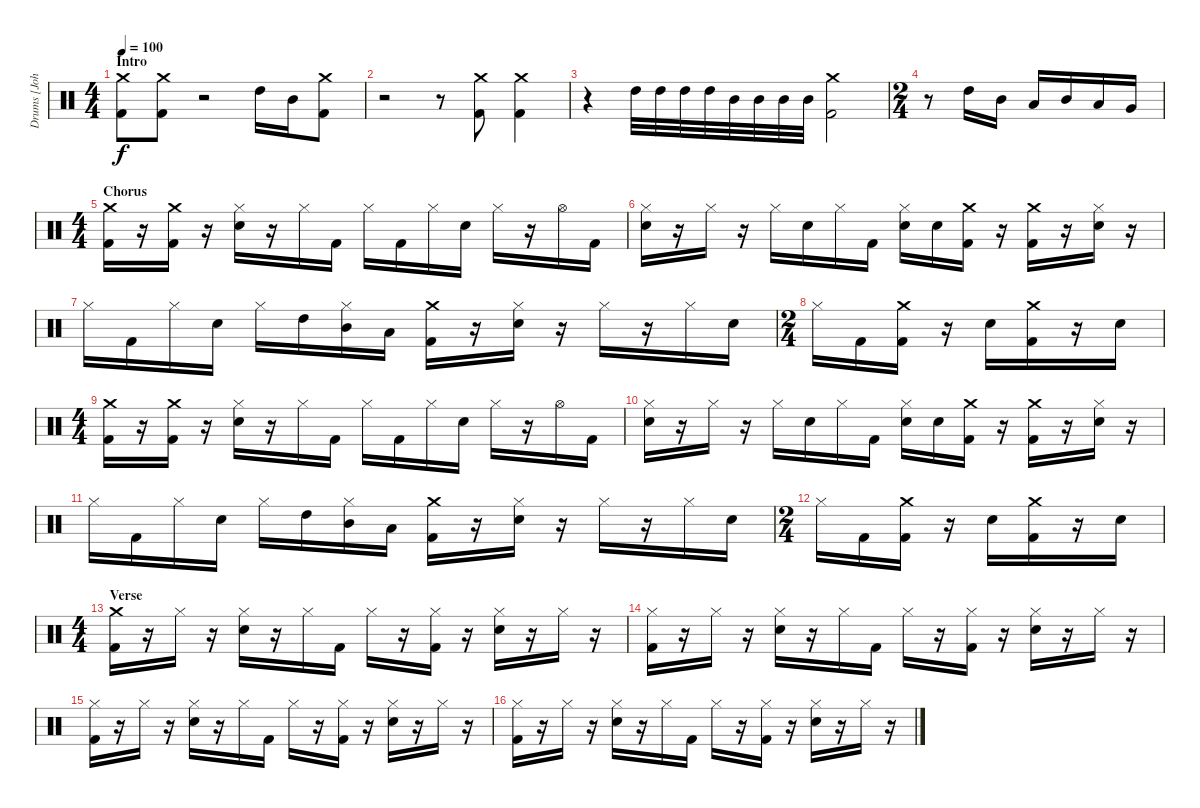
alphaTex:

\track ("Drums [John Otto]" "Drums [Joh") {instrument percussion}
\staff {score}
\articulation defaults
\ts (4 4)
\section ("" "Intro")
\tempo 100
\clef neutral
\ks c
("Crash medium (hit)" "Kick (hit) 2").8{dy f} ("Crash medium (hit)" "Kick (hit) 2").8 r.2 "High Tom (hit)".16 "Mid Tom (hit)".16 ("Crash medium (hit)" "Kick (hit) 2").8 |
r.2 r.8 ("Crash medium (hit)" "Kick (hit) 2").8 ("Crash medium (hit)" "Kick (hit) 2").4 |
r.4 "High Tom (hit)".32 "High Tom (hit)".32 "High Tom (hit)".32 "High Tom (hit)".32 "Mid Tom (hit)".32 "Mid Tom (hit)".32 "Mid Tom (hit)".32 "Mid Tom (hit)".32 ("Crash medium (hit)" "Kick (hit) 2").2 |
\ts (2 4)
r.8 "High Tom (hit)".16 "Mid Tom (hit)".16 "Low Tom (hit)".16 "Mid Tom (hit)".16 "Low Tom (hit)".16 "Very Low Tom (hit)".16 |
\ts (4 4)
\section ("" "Chorus")
("Crash medium (hit)" "Kick (hit) 2").16 r.16 ("Crash medium (hit)" "Kick (hit) 2").16 r.16 ("Hi-Hat (closed)" "Electric Snare (hit)").16 r.16 "Hi-Hat (closed)".16 "Kick (hit) 2".16 "Hi-Hat (closed)".16 "Kick (hit) 2".16 "Hi-Hat (closed)".16 "Electric Snare (hit)".16 "Hi-Hat (closed)".16 r.16 "Hi-Hat (open)".16 "Kick (hit) 2".16 |
("Hi-Hat (closed)" "Electric Snare (hit)").16 r.16 "Hi-Hat (closed)".16 r.16 "Hi-Hat (closed)".16 "Electric Snare (hit)".16 "Hi-Hat (closed)".16 "Kick (hit) 2".16 ("Hi-Hat (closed)" "Electric Snare (hit)").16 "Electric Snare (hit)".16 ("Crash medium (hit)" "Kick (hit) 2").16 r.16 ("Crash medium (hit)" "Kick (hit) 2").16 r.16 ("Hi-Hat (closed)" "Electric Snare (hit)").16 r.16 |
"Hi-Hat (closed)".16 "Kick (hit) 2".16 "Hi-Hat (closed)".16 "Electric Snare (hit)".16 "Hi-Hat (closed)".16 "High Tom (hit)".16 ("Hi-Hat (closed)" "Mid Tom (hit)").16 "Low Tom (hit)".16 ("Crash medium (hit)" "Kick (hit) 2").16 r.16 ("Hi-Hat (closed)" "Electric Snare (hit)").16 r.16 "Hi-Hat (closed)".16 r.16 "Hi-Hat (closed)".16 "Electric Snare (hit)".16 |
\ts (2 4)
"Hi-Hat (closed)".16 "Kick (hit) 2".16 ("Crash medium (hit)" "Kick (hit) 2").16 r.16 "Electric Snare (hit)".16 ("Crash medium (hit)" "Kick (hit) 2").16 r.16 "Electric Snare (hit)".16 |
\ts (4 4)
("Crash medium (hit)" "Kick (hit) 2").16 r.16 ("Crash medium (hit)" "Kick (hit) 2").16 r.16 ("Hi-Hat (closed)" "Electric Snare (hit)").16 r.16 "Hi-Hat (closed)".16 "Kick (hit) 2".16 "Hi-Hat (closed)".16 "Kick (hit) 2".16 "Hi-Hat (closed)".16 "Electric Snare (hit)".16 "Hi-Hat (closed)".16 r.16 "Hi-Hat (open)".16 "Kick (hit) 2".16 |
("Hi-Hat (closed)" "Electric Snare (hit)").16 r.16 "Hi-Hat (closed)".16 r.16 "Hi-Hat (closed)".16 "Electric Snare (hit)".16 "Hi-Hat (closed)".16 "Kick (hit) 2".16 ("Hi-Hat (closed)" "Electric Snare (hit)").16 "Electric Snare (hit)".16 ("Crash medium (hit)" "Kick (hit) 2").16 r.16 ("Crash medium (hit)" "Kick (hit) 2").16 r.16 ("Hi-Hat (closed)" "Electric Snare (hit)").16 r.16 |
"Hi-Hat (closed)".16 "Kick (hit) 2".16 "Hi-Hat (closed)".16 "Electric Snare (hit)".16 "Hi-Hat (closed)".16 "High Tom (hit)".16 ("Hi-Hat (closed)" "Mid Tom (hit)").16 "Low Tom (hit)".16 ("Crash medium (hit)" "Kick (hit) 2").16 r.16 ("Hi-Hat (closed)" "Electric Snare (hit)").16 r.16 "Hi-Hat (closed)".16 r.16 "Hi-Hat (closed)".16 "Electric Snare (hit)".16 |
\ts (2 4)
"Hi-Hat (closed)".16 "Kick (hit) 2".16 ("Crash medium (hit)" "Kick (hit) 2").16 r.16 "Electric Snare (hit)".16 ("Crash medium (hit)" "Kick (hit) 2").16 r.16 "Electric Snare (hit)".16 |
\ts (4 4)
\section ("" "Verse")
("Crash medium (hit)" "Kick (hit) 2").16 r.16 "Hi-Hat (closed)".16 r.16 ("Hi-Hat (closed)" "Electric Snare (hit)").16 r.16 "Hi-Hat (closed)".16 "Kick (hit) 2".16 "Hi-Hat (closed)".16 r.16 ("Hi-Hat (closed)" "Kick (hit) 2").16 r.16 ("Hi-Hat (closed)" "Electric Snare (hit)").16 r.16 "Hi-Hat (closed)".16 r.16 |
("Hi-Hat (closed)" "Kick (hit) 2").16 r.16 "Hi-Hat (closed)".16 r.16 ("Hi-Hat (closed)" "Electric Snare (hit)").16 r.16 "Hi-Hat (closed)".16 "Kick (hit) 2".16 "Hi-Hat (closed)".16 r.16 ("Hi-Hat (closed)" "Kick (hit) 2").16 r.16 ("Hi-Hat (closed)" "Electric Snare (hit)").16 r.16 "Hi-Hat (closed)".16 r.16 |
("Hi-Hat (closed)" "Kick (hit) 2").16 r.16 "Hi-Hat (closed)".16 r.16 ("Hi-Hat (closed)" "Electric Snare (hit)").16 r.16 "Hi-Hat (closed)".16 "Kick (hit) 2".16 "Hi-Hat (closed)".16 r.16 ("Hi-Hat (closed)" "Kick (hit) 2").16 r.16 ("Hi-Hat (closed)" "Electric Snare (hit)").16 r.16 "Hi-Hat (closed)".16 r.16 |
("Hi-Hat (closed)" "Kick (hit) 2").16 r.16 "Hi-Hat (closed)".16 r.16 ("Hi-Hat (closed)" "Electric Snare (hit)").16 r.16 "Hi-Hat (closed)".16 "Kick (hit) 2".16 "Hi-Hat (closed)".16 r.16 ("Hi-Hat (closed)" "Kick (hit) 2").16 r.16 ("Hi-Hat (closed)" "Electric Snare (hit)").16 r.16 "Hi-Hat (closed)".16 r.16
